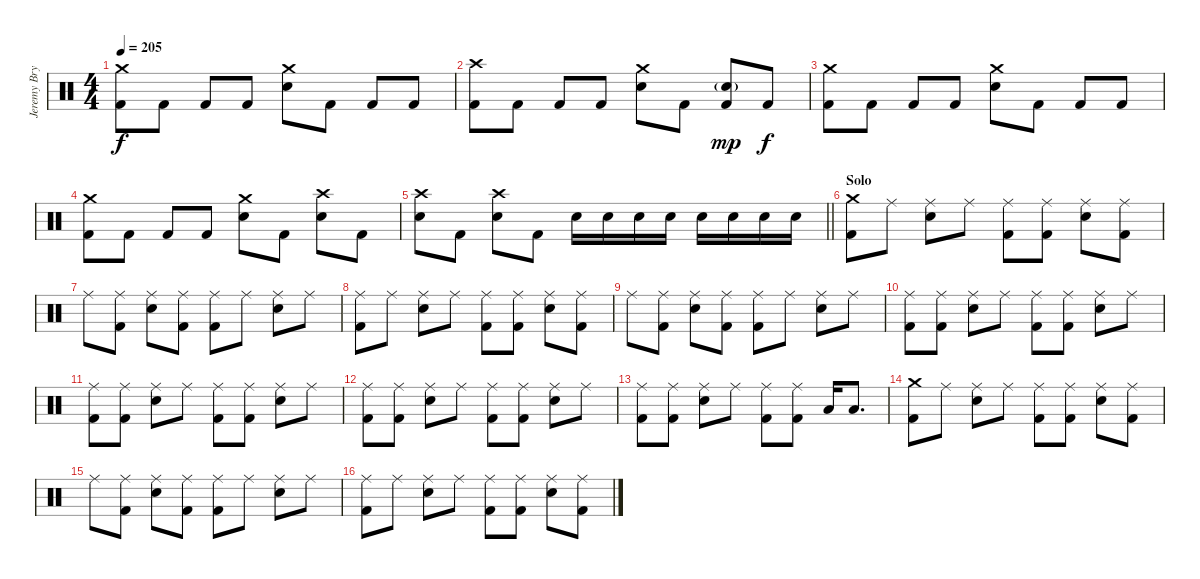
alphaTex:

\track ("Jeremy Bryan - Drums" "Jeremy Bry") {instrument percussion}
\staff {score}
\articulation defaults
\ts (4 4)
\tempo 205
\clef neutral
\ks c
("Crash medium (hit)" "Kick (hit) 2").8{dy f} "Kick (hit) 2".8 "Kick (hit) 2".8 "Kick (hit) 2".8 ("Crash medium (hit)" "Electric Snare (hit)").8 "Kick (hit) 2".8 "Kick (hit) 2".8 "Kick (hit) 2".8 |
("Crash high (hit)" "Kick (hit) 2").8 "Kick (hit) 2".8 "Kick (hit) 2".8 "Kick (hit) 2".8 ("Crash medium (hit)" "Electric Snare (hit)").8 "Kick (hit) 2".8 ("Electric Snare (hit)"{g} "Kick (hit) 2").8{dy mp} "Kick (hit) 2".8{dy f} |
("Crash medium (hit)" "Kick (hit) 2").8 "Kick (hit) 2".8 "Kick (hit) 2".8 "Kick (hit) 2".8 ("Crash medium (hit)" "Electric Snare (hit)").8 "Kick (hit) 2".8 "Kick (hit) 2".8 "Kick (hit) 2".8 |
("Crash medium (hit)" "Kick (hit) 2").8 "Kick (hit) 2".8 "Kick (hit) 2".8 "Kick (hit) 2".8 ("Crash medium (hit)" "Electric Snare (hit)").8 "Kick (hit) 2".8 ("Crash high (hit)" "Electric Snare (hit)").8 "Kick (hit) 2".8 |
\barLineRight lightlight
("Crash high (hit)" "Electric Snare (hit)").8 "Kick (hit) 2".8 ("Crash high (hit)" "Electric Snare (hit)").8 "Kick (hit) 2".8 "Electric Snare (hit)".16 "Electric Snare (hit)".16 "Electric Snare (hit)".16 "Electric Snare (hit)".16 "Electric Snare (hit)".16 "Electric Snare (hit)".16 "Electric Snare (hit)".16 "Electric Snare (hit)".16 |
\section ("" "Solo")
("Crash medium (hit)" "Kick (hit) 2").8 "Ride (middle)".8 ("Ride (middle)" "Electric Snare (hit)").8 "Ride (middle)".8 ("Ride (middle)" "Kick (hit) 2").8 ("Ride (middle)" "Kick (hit) 2").8 ("Ride (middle)" "Electric Snare (hit)").8 ("Ride (middle)" "Kick (hit) 2").8 |
"Ride (middle)".8 ("Ride (middle)" "Kick (hit) 2").8 ("Ride (middle)" "Electric Snare (hit)").8 ("Ride (middle)" "Kick (hit) 2").8 ("Ride (middle)" "Kick (hit) 2").8 "Ride (middle)".8 ("Ride (middle)" "Electric Snare (hit)").8 "Ride (middle)".8 |
("Ride (middle)" "Kick (hit) 2").8 "Ride (middle)".8 ("Ride (middle)" "Electric Snare (hit)").8 "Ride (middle)".8 ("Ride (middle)" "Kick (hit) 2").8 ("Ride (middle)" "Kick (hit) 2").8 ("Ride (middle)" "Electric Snare (hit)").8 ("Ride (middle)" "Kick (hit) 2").8 |
"Ride (middle)".8 ("Ride (middle)" "Kick (hit) 2").8 ("Ride (middle)" "Electric Snare (hit)").8 ("Ride (middle)" "Kick (hit) 2").8 ("Ride (middle)" "Kick (hit) 2").8 "Ride (middle)".8 ("Ride (middle)" "Electric Snare (hit)").8 "Ride (middle)".8 |
("Ride (middle)" "Kick (hit) 2").8 ("Ride (middle)" "Kick (hit) 2").8 ("Ride (middle)" "Electric Snare (hit)").8 "Ride (middle)".8 ("Ride (middle)" "Kick (hit) 2").8 ("Ride (middle)" "Kick (hit) 2").8 ("Ride (middle)" "Electric Snare (hit)").8 "Ride (middle)".8 |
("Ride (middle)" "Kick (hit) 2").8 ("Ride (middle)" "Kick (hit) 2").8 ("Ride (middle)" "Electric Snare (hit)").8 "Ride (middle)".8 ("Ride (middle)" "Kick (hit) 2").8 ("Ride (middle)" "Kick (hit) 2").8 ("Ride (middle)" "Electric Snare (hit)").8 "Ride (middle)".8 |
("Ride (middle)" "Kick (hit) 2").8 ("Ride (middle)" "Kick (hit) 2").8 ("Ride (middle)" "Electric Snare (hit)").8 "Ride (middle)".8 ("Ride (middle)" "Kick (hit) 2").8 ("Ride (middle)" "Kick (hit) 2").8 ("Ride (middle)" "Electric Snare (hit)").8 "Ride (middle)".8 |
("Ride (middle)" "Kick (hit) 2").8 ("Ride (middle)" "Kick (hit) 2").8 ("Ride (middle)" "Electric Snare (hit)").8 "Ride (middle)".8 ("Ride (middle)" "Kick (hit) 2").8 ("Ride (middle)" "Kick (hit) 2").8 "Low Tom (hit)".16 "Low Tom (hit)".8{d} |
("Crash medium (hit)" "Kick (hit) 2").8 "Ride (middle)".8 ("Ride (middle)" "Electric Snare (hit)").8 "Ride (middle)".8 ("Ride (middle)" "Kick (hit) 2").8 ("Ride (middle)" "Kick (hit) 2").8 ("Ride (middle)" "Electric Snare (hit)").8 ("Ride (middle)" "Kick (hit) 2").8 |
"Ride (middle)".8 ("Ride (middle)" "Kick (hit) 2").8 ("Ride (middle)" "Electric Snare (hit)").8 ("Ride (middle)" "Kick (hit) 2").8 ("Ride (middle)" "Kick (hit) 2").8 "Ride (middle)".8 ("Ride (middle)" "Electric Snare (hit)").8 "Ride (middle)".8 |
("Ride (middle)" "Kick (hit) 2").8 "Ride (middle)".8 ("Ride (middle)" "Electric Snare (hit)").8 "Ride (middle)".8 ("Ride (middle)" "Kick (hit) 2").8 ("Ride (middle)" "Kick (hit) 2").8 ("Ride (middle)" "Electric Snare (hit)").8 ("Ride (middle)" "Kick (hit) 2").8
